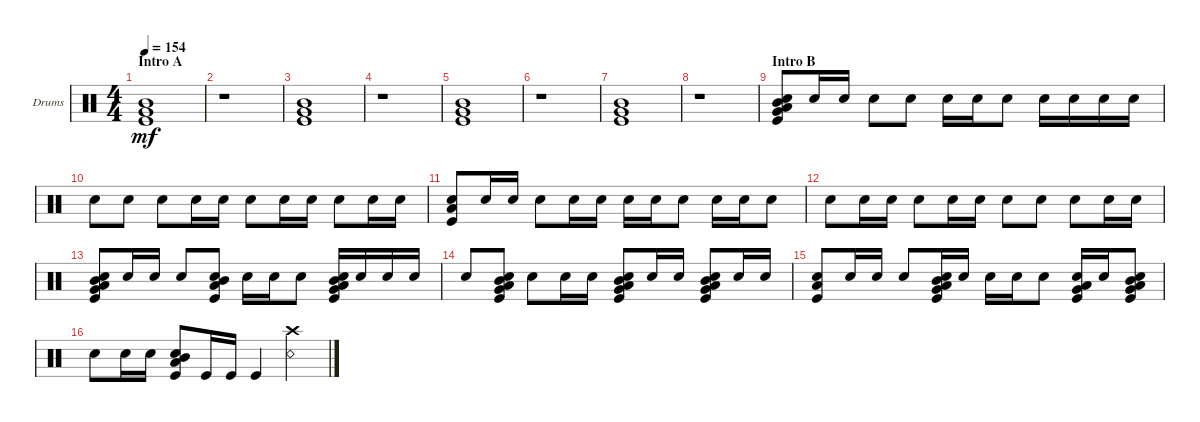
\defaultSystemsLayout 4
\bracketExtendMode groupsimilarinstruments
\firstSystemTrackNameOrientation horizontal
\otherSystemsTrackNameOrientation horizontal
\track ("Drums" "Drums") {instrument percussion}
\staff {score}
\articulation defaults
\ts (4 4)
\section ("" "Intro A")
\tempo 154
\clef neutral
\ks c
("Kick (hit)" "Very Low Tom (hit)" "Mid Tom (hit)").1{dy mf} |
r.1 |
("Kick (hit)" "Very Low Tom (hit)" "Mid Tom (hit)").1 |
r.1 |
("Kick (hit)" "Very Low Tom (hit)" "Mid Tom (hit)").1 |
r.1 |
("Kick (hit)" "Very Low Tom (hit)" "Mid Tom (hit)").1 |
r.1 |
\section ("" "Intro B")
("Snare (hit) 2" "Very Low Tom (hit)" "Low Tom (hit)" "Mid Tom (hit)" "Kick (hit)").8 "Snare (hit) 2".16 "Snare (hit) 2".16 "Snare (hit) 2".8 "Snare (hit) 2".8 "Snare (hit) 2".16 "Snare (hit) 2".16 "Snare (hit) 2".8 "Snare (hit) 2".16 "Snare (hit) 2".16 "Snare (hit) 2".16 "Snare (hit) 2".16 |
"Snare (hit) 2".8 "Snare (hit) 2".8 "Snare (hit) 2".8 "Snare (hit) 2".16 "Snare (hit) 2".16 "Snare (hit) 2".8 "Snare (hit) 2".16 "Snare (hit) 2".16 "Snare (hit) 2".8 "Snare (hit) 2".16 "Snare (hit) 2".16 |
("Snare (hit) 2" "Kick (hit)" "Low Tom (hit)").8 "Snare (hit) 2".16 "Snare (hit) 2".16 "Snare (hit) 2".8 "Snare (hit) 2".16 "Snare (hit) 2".16 "Snare (hit) 2".16 "Snare (hit) 2".16 "Snare (hit) 2".8 "Snare (hit) 2".16 "Snare (hit) 2".16 "Snare (hit) 2".8 |
"Snare (hit) 2".8 "Snare (hit) 2".16 "Snare (hit) 2".16 "Snare (hit) 2".8 "Snare (hit) 2".16 "Snare (hit) 2".16 "Snare (hit) 2".8 "Snare (hit) 2".8 "Snare (hit) 2".8 "Snare (hit) 2".16 "Snare (hit) 2".16 |
("Snare (hit) 2" "Very Low Tom (hit)" "Low Tom (hit)" "Mid Tom (hit)" "Kick (hit)").8 "Snare (hit) 2".16 "Snare (hit) 2".16 "Snare (hit) 2".8 ("Snare (hit) 2" "Kick (hit)" "Low Tom (hit)" "Mid Tom (hit)").8 "Snare (hit) 2".16 "Snare (hit) 2".16 "Snare (hit) 2".8 ("Snare (hit) 2" "Low Tom (hit)" "Very Low Tom (hit)" "Kick (hit)" "Mid Tom (hit)").16 "Snare (hit) 2".16 "Snare (hit) 2".16 "Snare (hit) 2".16 |
"Snare (hit) 2".8 ("Snare (hit) 2" "Low Tom (hit)" "Very Low Tom (hit)" "Mid Tom (hit)" "Kick (hit)").8 "Snare (hit) 2".8 "Snare (hit) 2".16 "Snare (hit) 2".16 ("Snare (hit) 2" "Mid Tom (hit)" "Low Tom (hit)" "Very Low Tom (hit)" "Kick (hit)").8 "Snare (hit) 2".16 "Snare (hit) 2".16 ("Snare (hit) 2" "Very Low Tom (hit)" "Low Tom (hit)" "Mid Tom (hit)" "Kick (hit)").8 "Snare (hit) 2".16 "Snare (hit) 2".16 |
("Snare (hit) 2" "Kick (hit)" "Low Tom (hit)").8 "Snare (hit) 2".16 "Snare (hit) 2".16 "Snare (hit) 2".8 ("Snare (hit) 2" "Low Tom (hit)" "Very Low Tom (hit)" "Mid Tom (hit)" "Kick (hit)").16 "Snare (hit) 2".16 "Snare (hit) 2".16 "Snare (hit) 2".16 "Snare (hit) 2".8 ("Snare (hit) 2" "Low Tom (hit)" "Very Low Tom (hit)" "Kick (hit)").16 "Snare (hit) 2".16 ("Snare (hit) 2" "Kick (hit)" "Very Low Tom (hit)" "Low Tom (hit)" "Mid Tom (hit)").8 |
"Snare (hit) 2".8 "Snare (hit) 2".16 "Snare (hit) 2".16 ("Snare (hit) 2" "Mid Tom (hit)" "Low Tom (hit)" "Kick (hit)").8 "Kick (hit)".16 "Kick (hit)".16 "Kick (hit)".4 ("Snare (rim shot)" "Crash high (hit)").4
